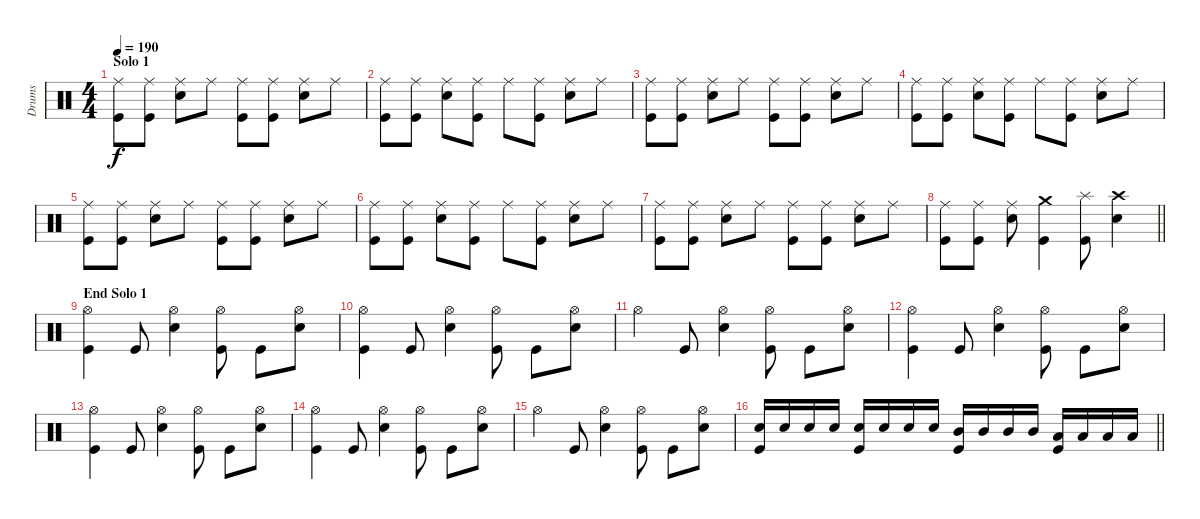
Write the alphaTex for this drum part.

\track ("Drums" "Drums") {instrument percussion}
\staff {score}
\articulation defaults
\ts (4 4)
\section ("" "Solo 1")
\tempo 190
\clef neutral
\ks c
("Ride (middle)" "Kick (hit)").8{dy f} ("Ride (middle)" "Kick (hit)").8 ("Ride (middle)" "Snare (hit) 2").8 "Ride (middle)".8 ("Ride (middle)" "Kick (hit)").8 ("Ride (middle)" "Kick (hit)").8 ("Ride (middle)" "Snare (hit) 2").8 "Ride (middle)".8 |
("Ride (middle)" "Kick (hit)").8 ("Ride (middle)" "Kick (hit)").8 ("Ride (middle)" "Snare (hit) 2").8 ("Ride (middle)" "Kick (hit)").8 "Ride (middle)".8 ("Ride (middle)" "Kick (hit)").8 ("Ride (middle)" "Snare (hit) 2").8 "Ride (middle)".8 |
("Ride (middle)" "Kick (hit)").8 ("Ride (middle)" "Kick (hit)").8 ("Ride (middle)" "Snare (hit) 2").8 "Ride (middle)".8 ("Ride (middle)" "Kick (hit)").8 ("Ride (middle)" "Kick (hit)").8 ("Ride (middle)" "Snare (hit) 2").8 "Ride (middle)".8 |
("Ride (middle)" "Kick (hit)").8 ("Ride (middle)" "Kick (hit)").8 ("Ride (middle)" "Snare (hit) 2").8 ("Ride (middle)" "Kick (hit)").8 "Ride (middle)".8 ("Ride (middle)" "Kick (hit)").8 ("Ride (middle)" "Snare (hit) 2").8 "Ride (middle)".8 |
("Ride (middle)" "Kick (hit)").8 ("Ride (middle)" "Kick (hit)").8 ("Ride (middle)" "Snare (hit) 2").8 "Ride (middle)".8 ("Ride (middle)" "Kick (hit)").8 ("Ride (middle)" "Kick (hit)").8 ("Ride (middle)" "Snare (hit) 2").8 "Ride (middle)".8 |
("Ride (middle)" "Kick (hit)").8 ("Ride (middle)" "Kick (hit)").8 ("Ride (middle)" "Snare (hit) 2").8 ("Ride (middle)" "Kick (hit)").8 "Ride (middle)".8 ("Ride (middle)" "Kick (hit)").8 ("Ride (middle)" "Snare (hit) 2").8 "Ride (middle)".8 |
("Ride (middle)" "Kick (hit)").8 ("Ride (middle)" "Kick (hit)").8 ("Ride (middle)" "Snare (hit) 2").8 "Ride (middle)".8 ("Ride (middle)" "Kick (hit)").8 ("Ride (middle)" "Kick (hit)").8 ("Ride (middle)" "Snare (hit) 2").8 "Ride (middle)".8 |
\barLineRight lightlight
("Ride (middle)" "Kick (hit)").8 ("Ride (middle)" "Kick (hit)").8 ("Ride (middle)" "Snare (hit) 2").8 ("Crash medium (hit)" "Kick (hit)").4 ("Splash (hit)" "Kick (hit)").8 ("Crash high (hit)" "Snare (hit) 2").4 |
\section ("" "End Solo 1")
("Hi-Hat (open)" "Kick (hit)").4 "Kick (hit)".8 ("Hi-Hat (open)" "Snare (hit) 2").4 ("Hi-Hat (open)" "Kick (hit)").8 "Kick (hit)".8 ("Hi-Hat (open)" "Snare (hit) 2").8 |
("Hi-Hat (open)" "Kick (hit)").4 "Kick (hit)".8 ("Hi-Hat (open)" "Snare (hit) 2").4 ("Hi-Hat (open)" "Kick (hit)").8 "Kick (hit)".8 ("Hi-Hat (open)" "Snare (hit) 2").8 |
"Hi-Hat (open)".4 "Kick (hit)".8 ("Hi-Hat (open)" "Snare (hit) 2").4 ("Hi-Hat (open)" "Kick (hit)").8 "Kick (hit)".8 ("Hi-Hat (open)" "Snare (hit) 2").8 |
("Hi-Hat (open)" "Kick (hit)").4 "Kick (hit)".8 ("Hi-Hat (open)" "Snare (hit) 2").4 ("Hi-Hat (open)" "Kick (hit)").8 "Kick (hit)".8 ("Hi-Hat (open)" "Snare (hit) 2").8 |
("Hi-Hat (open)" "Kick (hit)").4 "Kick (hit)".8 ("Hi-Hat (open)" "Snare (hit) 2").4 ("Hi-Hat (open)" "Kick (hit)").8 "Kick (hit)".8 ("Hi-Hat (open)" "Snare (hit) 2").8 |
("Hi-Hat (open)" "Kick (hit)").4 "Kick (hit)".8 ("Hi-Hat (open)" "Snare (hit) 2").4 ("Hi-Hat (open)" "Kick (hit)").8 "Kick (hit)".8 ("Hi-Hat (open)" "Snare (hit) 2").8 |
"Hi-Hat (open)".4 "Kick (hit)".8 ("Hi-Hat (open)" "Snare (hit) 2").4 ("Hi-Hat (open)" "Kick (hit)").8 "Kick (hit)".8 ("Hi-Hat (open)" "Snare (hit) 2").8 |
\barLineRight lightlight
("Snare (hit) 2" "Kick (hit)").16 "Snare (hit) 2".16 "Snare (hit) 2".16 "Snare (hit) 2".16 ("Snare (hit) 2" "Kick (hit)").16 "Snare (hit) 2".16 "Snare (hit) 2".16 "Snare (hit) 2".16 ("Mid Tom (hit)" "Kick (hit)").16 "Mid Tom (hit)".16 "Mid Tom (hit)".16 "Mid Tom (hit)".16 ("Low Tom (hit)" "Kick (hit)").16 "Low Tom (hit)".16 "Low Tom (hit)".16 "Low Tom (hit)".16
